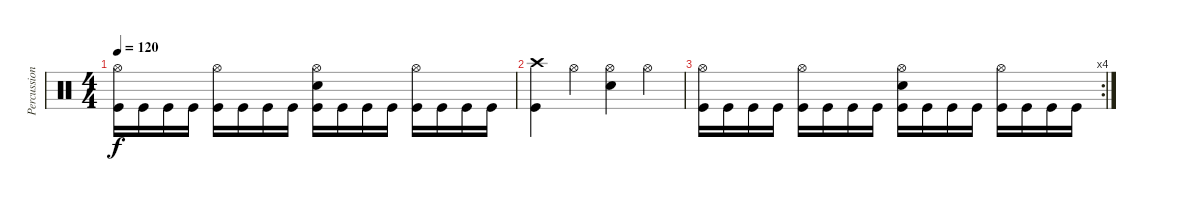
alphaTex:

\track ("Percussion" "Percussion") {instrument percussion}
\staff {score}
\articulation defaults
\ts (4 4)
\tempo 120
\clef neutral
\ks c
("Hi-Hat (open)" "Kick (hit)").16{dy f} "Kick (hit)".16 "Kick (hit)".16 "Kick (hit)".16 ("Hi-Hat (open)" "Kick (hit)").16 "Kick (hit)".16 "Kick (hit)".16 "Kick (hit)".16 ("Hi-Hat (open)" "Electric Snare (hit)" "Kick (hit)").16 "Kick (hit)".16 "Kick (hit)".16 "Kick (hit)".16 ("Hi-Hat (open)" "Kick (hit)").16 "Kick (hit)".16 "Kick (hit)".16 "Kick (hit)".16 |
("Crash high (hit)" "Kick (hit)").4 "Hi-Hat (open)".4 ("Hi-Hat (open)" "Electric Snare (hit)").4 "Hi-Hat (open)".4 |
\rc 4
("Hi-Hat (open)" "Kick (hit)").16 "Kick (hit)".16 "Kick (hit)".16 "Kick (hit)".16 ("Hi-Hat (open)" "Kick (hit)").16 "Kick (hit)".16 "Kick (hit)".16 "Kick (hit)".16 ("Hi-Hat (open)" "Electric Snare (hit)" "Kick (hit)").16 "Kick (hit)".16 "Kick (hit)".16 "Kick (hit)".16 ("Hi-Hat (open)" "Kick (hit)").16 "Kick (hit)".16 "Kick (hit)".16 "Kick (hit)".16
